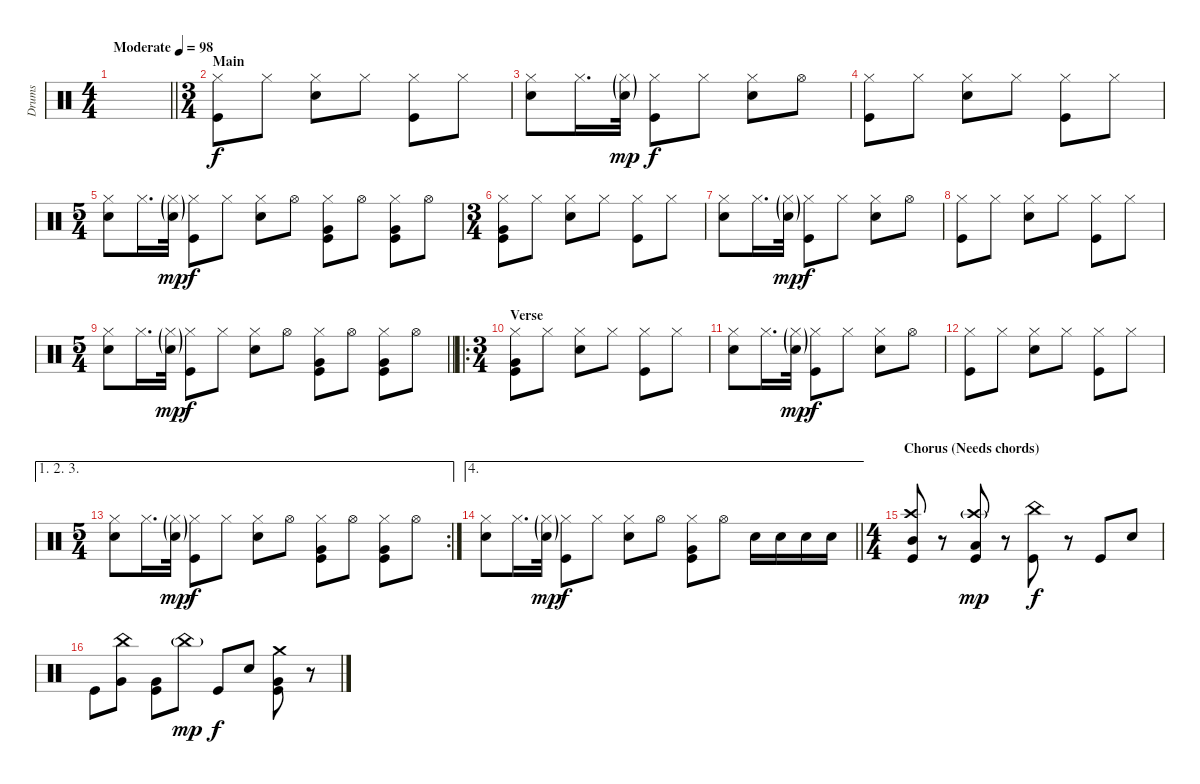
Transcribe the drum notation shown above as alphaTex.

\track ("Drums" "Drums") {instrument percussion}
\staff {score}
\articulation defaults
\ts (4 4)
\tempo (98 "Moderate")
\clef neutral
\barLineRight lightlight
\ks c
|
\ts (3 4)
\section ("" "Main")
("Hi-Hat (closed)" "Kick (hit)").8 "Hi-Hat (closed)".8 ("Hi-Hat (closed)" "Electric Snare (hit)").8 "Hi-Hat (closed)".8 ("Hi-Hat (closed)" "Kick (hit)").8 "Hi-Hat (closed)".8 |
("Hi-Hat (closed)" "Electric Snare (hit)").8 "Hi-Hat (closed)".16{d} ("Hi-Hat (closed)"{g} "Electric Snare (hit)"{g}).32{dy mp} ("Hi-Hat (closed)" "Kick (hit)").8{dy f} "Hi-Hat (closed)".8 ("Hi-Hat (closed)" "Electric Snare (hit)").8 "Hi-Hat (open)".8 |
("Hi-Hat (closed)" "Kick (hit)").8 "Hi-Hat (closed)".8 ("Hi-Hat (closed)" "Electric Snare (hit)").8 "Hi-Hat (closed)".8 ("Hi-Hat (closed)" "Kick (hit)").8 "Hi-Hat (closed)".8 |
\ts (5 4)
("Hi-Hat (closed)" "Electric Snare (hit)").8 "Hi-Hat (closed)".16{d} ("Hi-Hat (closed)"{g} "Electric Snare (hit)"{g}).32{dy mp} ("Hi-Hat (closed)" "Kick (hit)").8{dy f} "Hi-Hat (closed)".8 ("Hi-Hat (closed)" "Electric Snare (hit)").8 "Hi-Hat (open)".8 ("Hi-Hat (closed)" "Very Low Tom (hit)" "Kick (hit)").8 "Hi-Hat (open)".8 ("Hi-Hat (closed)" "Very Low Tom (hit)" "Kick (hit)").8 "Hi-Hat (open)".8 |
\ts (3 4)
("Hi-Hat (closed)" "Very Low Tom (hit)" "Kick (hit)").8 "Hi-Hat (closed)".8 ("Hi-Hat (closed)" "Electric Snare (hit)").8 "Hi-Hat (closed)".8 ("Hi-Hat (closed)" "Kick (hit)").8 "Hi-Hat (closed)".8 |
("Hi-Hat (closed)" "Electric Snare (hit)").8 "Hi-Hat (closed)".16{d} ("Hi-Hat (closed)"{g} "Electric Snare (hit)"{g}).32{dy mp} ("Hi-Hat (closed)" "Kick (hit)").8{dy f} "Hi-Hat (closed)".8 ("Hi-Hat (closed)" "Electric Snare (hit)").8 "Hi-Hat (open)".8 |
("Hi-Hat (closed)" "Kick (hit)").8 "Hi-Hat (closed)".8 ("Hi-Hat (closed)" "Electric Snare (hit)").8 "Hi-Hat (closed)".8 ("Hi-Hat (closed)" "Kick (hit)").8 "Hi-Hat (closed)".8 |
\ts (5 4)
\barLineRight lightlight
("Hi-Hat (closed)" "Electric Snare (hit)").8 "Hi-Hat (closed)".16{d} ("Hi-Hat (closed)"{g} "Electric Snare (hit)"{g}).32{dy mp} ("Hi-Hat (closed)" "Kick (hit)").8{dy f} "Hi-Hat (closed)".8 ("Hi-Hat (closed)" "Electric Snare (hit)").8 "Hi-Hat (open)".8 ("Hi-Hat (closed)" "Very Low Tom (hit)" "Kick (hit)").8 "Hi-Hat (open)".8 ("Hi-Hat (closed)" "Very Low Tom (hit)" "Kick (hit)").8 "Hi-Hat (open)".8 |
\ro
\ts (3 4)
\section ("" "Verse")
("Hi-Hat (closed)" "Very Low Tom (hit)" "Kick (hit)").8 "Hi-Hat (closed)".8 ("Hi-Hat (closed)" "Electric Snare (hit)").8 "Hi-Hat (closed)".8 ("Hi-Hat (closed)" "Kick (hit)").8 "Hi-Hat (closed)".8 |
("Hi-Hat (closed)" "Electric Snare (hit)").8 "Hi-Hat (closed)".16{d} ("Hi-Hat (closed)"{g} "Electric Snare (hit)"{g}).32{dy mp} ("Hi-Hat (closed)" "Kick (hit)").8{dy f} "Hi-Hat (closed)".8 ("Hi-Hat (closed)" "Electric Snare (hit)").8 "Hi-Hat (open)".8 |
("Hi-Hat (closed)" "Kick (hit)").8 "Hi-Hat (closed)".8 ("Hi-Hat (closed)" "Electric Snare (hit)").8 "Hi-Hat (closed)".8 ("Hi-Hat (closed)" "Kick (hit)").8 "Hi-Hat (closed)".8 |
\ae (1 2 3)
\rc 2
\ts (5 4)
("Hi-Hat (closed)" "Electric Snare (hit)").8 "Hi-Hat (closed)".16{d} ("Hi-Hat (closed)"{g} "Electric Snare (hit)"{g}).32{dy mp} ("Hi-Hat (closed)" "Kick (hit)").8{dy f} "Hi-Hat (closed)".8 ("Hi-Hat (closed)" "Electric Snare (hit)").8 "Hi-Hat (open)".8 ("Hi-Hat (closed)" "Very Low Tom (hit)" "Kick (hit)").8 "Hi-Hat (open)".8 ("Hi-Hat (closed)" "Very Low Tom (hit)" "Kick (hit)").8 "Hi-Hat (open)".8 |
\ae 4
\barLineRight lightlight
("Hi-Hat (closed)" "Electric Snare (hit)").8 "Hi-Hat (closed)".16{d} ("Hi-Hat (closed)"{g} "Electric Snare (hit)"{g}).32{dy mp} ("Hi-Hat (closed)" "Kick (hit)").8{dy f} "Hi-Hat (closed)".8 ("Hi-Hat (closed)" "Electric Snare (hit)").8 "Hi-Hat (open)".8 ("Hi-Hat (closed)" "Very Low Tom (hit)" "Kick (hit)").8 "Hi-Hat (open)".8 "Electric Snare (hit)".16 "Electric Snare (hit)".16 "Electric Snare (hit)".16 "Electric Snare (hit)".16 |
\ts (4 4)
\section ("" "Chorus (Needs chords)")
("Crash high (hit)" "Mid Tom (hit)" "Kick (hit)").8 r.8 ("Crash high (hit)"{g} "Low Tom (hit)" "Kick (hit)").8{dy mp} r.8 ("China (hit)" "Kick (hit)").8{dy f} r.8 "Kick (hit)".8 "Electric Snare (hit)".8 |
"Kick (hit)".8 ("China (hit)" "Very Low Tom (hit)").8 ("Very Low Tom (hit)" "Kick (hit)").8 "China (hit)"{g}.8{dy mp} "Kick (hit)".8{dy f} "Electric Snare (hit)".8 ("Crash medium (hit)" "Very Low Tom (hit)" "Kick (hit)").8 r.8
